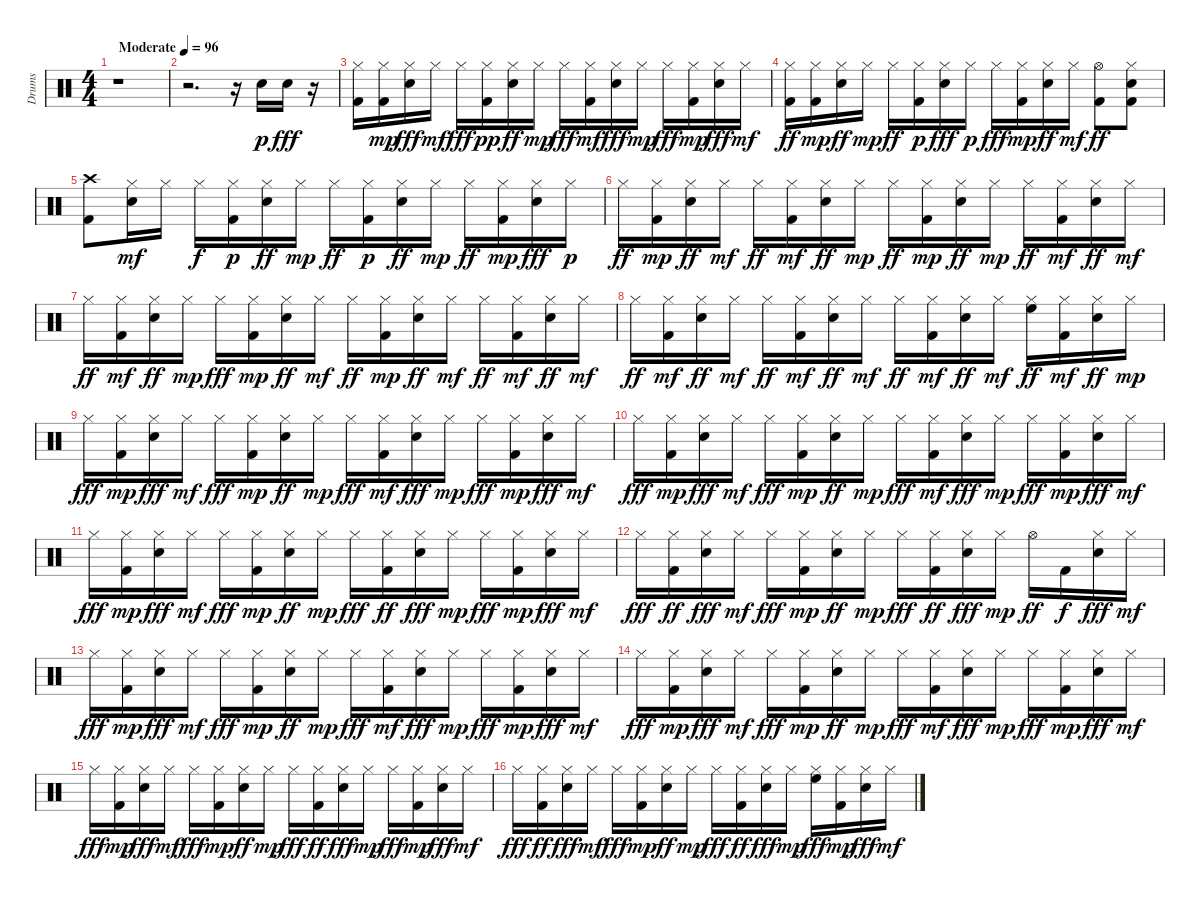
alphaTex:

\track ("Drums" "Drums") {instrument percussion}
\staff {score}
\articulation defaults
\ts (4 4)
\tempo (96 "Moderate")
\clef neutral
\ks c
r.1{dy p} |
r.2{d} r.16 "Electric Snare (hit)".16 "Electric Snare (hit)".16{dy fff} r.16 |
("Kick (hit) 2" "Hi-Hat (closed)").16 ("Kick (hit) 2" "Hi-Hat (closed)").16{dy mp} ("Electric Snare (hit)" "Hi-Hat (closed)").16{dy fff} "Hi-Hat (closed)".16{dy mf} "Hi-Hat (closed)".16{dy fff} ("Kick (hit) 2" "Hi-Hat (closed)").16{dy pp} ("Electric Snare (hit)" "Hi-Hat (closed)").16{dy ff} "Hi-Hat (closed)".16{dy mp} "Hi-Hat (closed)".16{dy fff} ("Kick (hit) 2" "Hi-Hat (closed)").16{dy mf} ("Electric Snare (hit)" "Hi-Hat (closed)").16{dy fff} "Hi-Hat (closed)".16{dy mp} "Hi-Hat (closed)".16{dy fff} ("Kick (hit) 2" "Hi-Hat (closed)").16{dy mp} ("Electric Snare (hit)" "Hi-Hat (closed)").16{dy fff} "Hi-Hat (closed)".16{dy mf} |
("Hi-Hat (closed)" "Kick (hit) 2").16{dy ff} ("Kick (hit) 2" "Hi-Hat (closed)").16{dy mp} ("Electric Snare (hit)" "Hi-Hat (closed)").16{dy ff} "Hi-Hat (closed)".16{dy mp} "Hi-Hat (closed)".16{dy ff} ("Kick (hit) 2" "Hi-Hat (closed)").16{dy p} ("Electric Snare (hit)" "Hi-Hat (closed)").16{dy fff} "Hi-Hat (closed)".16{dy p} "Hi-Hat (closed)".16{dy fff} ("Kick (hit) 2" "Hi-Hat (closed)").16{dy mp} ("Electric Snare (hit)" "Hi-Hat (closed)").16{dy ff} "Hi-Hat (closed)".16{dy mf} ("Hi-Hat (open)" "Kick (hit) 2").8{dy ff} ("Electric Snare (hit)" "Kick (hit) 2" "Hi-Hat (closed)").8 |
("Kick (hit) 2" "Crash high (hit)").8 ("Electric Snare (hit)" "Hi-Hat (closed)").16{dy mf} "Hi-Hat (closed)".16 "Hi-Hat (closed)".16{dy f} ("Kick (hit) 2" "Hi-Hat (closed)").16{dy p} ("Electric Snare (hit)" "Hi-Hat (closed)").16{dy ff} "Hi-Hat (closed)".16{dy mp} "Hi-Hat (closed)".16{dy ff} ("Kick (hit) 2" "Hi-Hat (closed)").16{dy p} ("Electric Snare (hit)" "Hi-Hat (closed)").16{dy ff} "Hi-Hat (closed)".16{dy mp} "Hi-Hat (closed)".16{dy ff} ("Kick (hit) 2" "Hi-Hat (closed)").16{dy mp} ("Electric Snare (hit)" "Hi-Hat (closed)").16{dy fff} "Hi-Hat (closed)".16{dy p} |
"Hi-Hat (closed)".16{dy ff} ("Kick (hit) 2" "Hi-Hat (closed)").16{dy mp} ("Electric Snare (hit)" "Hi-Hat (closed)").16{dy ff} "Hi-Hat (closed)".16{dy mf} "Hi-Hat (closed)".16{dy ff} ("Kick (hit) 2" "Hi-Hat (closed)").16{dy mf} ("Electric Snare (hit)" "Hi-Hat (closed)").16{dy ff} "Hi-Hat (closed)".16{dy mp} "Hi-Hat (closed)".16{dy ff} ("Kick (hit) 2" "Hi-Hat (closed)").16{dy mp} ("Electric Snare (hit)" "Hi-Hat (closed)").16{dy ff} "Hi-Hat (closed)".16{dy mp} "Hi-Hat (closed)".16{dy ff} ("Kick (hit) 2" "Hi-Hat (closed)").16{dy mf} ("Electric Snare (hit)" "Hi-Hat (closed)").16{dy ff} "Hi-Hat (closed)".16{dy mf} |
"Hi-Hat (closed)".16{dy ff} ("Kick (hit) 2" "Hi-Hat (closed)").16{dy mf} ("Electric Snare (hit)" "Hi-Hat (closed)").16{dy ff} "Hi-Hat (closed)".16{dy mp} "Hi-Hat (closed)".16{dy fff} ("Kick (hit) 2" "Hi-Hat (closed)").16{dy mp} ("Electric Snare (hit)" "Hi-Hat (closed)").16{dy ff} "Hi-Hat (closed)".16{dy mf} "Hi-Hat (closed)".16{dy ff} ("Kick (hit) 2" "Hi-Hat (closed)").16{dy mp} ("Electric Snare (hit)" "Hi-Hat (closed)").16{dy ff} "Hi-Hat (closed)".16{dy mf} "Hi-Hat (closed)".16{dy ff} ("Kick (hit) 2" "Hi-Hat (closed)").16{dy mf} ("Electric Snare (hit)" "Hi-Hat (closed)").16{dy ff} "Hi-Hat (closed)".16{dy mf} |
"Hi-Hat (closed)".16{dy ff} ("Kick (hit) 2" "Hi-Hat (closed)").16{dy mf} ("Electric Snare (hit)" "Hi-Hat (closed)").16{dy ff} "Hi-Hat (closed)".16{dy mf} "Hi-Hat (closed)".16{dy ff} ("Kick (hit) 2" "Hi-Hat (closed)").16{dy mf} ("Electric Snare (hit)" "Hi-Hat (closed)").16{dy ff} "Hi-Hat (closed)".16{dy mf} "Hi-Hat (closed)".16{dy ff} ("Kick (hit) 2" "Hi-Hat (closed)").16{dy mf} ("Electric Snare (hit)" "Hi-Hat (closed)").16{dy ff} "Hi-Hat (closed)".16{dy mf} ("Hi-Hat (closed)" "High Floor Tom (hit)").16{dy ff} ("Kick (hit) 2" "Hi-Hat (closed)").16{dy mf} ("Electric Snare (hit)" "Hi-Hat (closed)").16{dy ff} "Hi-Hat (closed)".16{dy mp} |
"Hi-Hat (closed)".16{dy fff} ("Kick (hit) 2" "Hi-Hat (closed)").16{dy mp} ("Electric Snare (hit)" "Hi-Hat (closed)").16{dy fff} "Hi-Hat (closed)".16{dy mf} "Hi-Hat (closed)".16{dy fff} ("Kick (hit) 2" "Hi-Hat (closed)").16{dy mp} ("Electric Snare (hit)" "Hi-Hat (closed)").16{dy ff} "Hi-Hat (closed)".16{dy mp} "Hi-Hat (closed)".16{dy fff} ("Hi-Hat (closed)" "Kick (hit) 2").16{dy mf} ("Electric Snare (hit)" "Hi-Hat (closed)").16{dy fff} "Hi-Hat (closed)".16{dy mp} "Hi-Hat (closed)".16{dy fff} ("Kick (hit) 2" "Hi-Hat (closed)").16{dy mp} ("Electric Snare (hit)" "Hi-Hat (closed)").16{dy fff} "Hi-Hat (closed)".16{dy mf} |
"Hi-Hat (closed)".16{dy fff} ("Kick (hit) 2" "Hi-Hat (closed)").16{dy mp} ("Electric Snare (hit)" "Hi-Hat (closed)").16{dy fff} "Hi-Hat (closed)".16{dy mf} "Hi-Hat (closed)".16{dy fff} ("Kick (hit) 2" "Hi-Hat (closed)").16{dy mp} ("Electric Snare (hit)" "Hi-Hat (closed)").16{dy ff} "Hi-Hat (closed)".16{dy mp} "Hi-Hat (closed)".16{dy fff} ("Kick (hit) 2" "Hi-Hat (closed)").16{dy mf} ("Electric Snare (hit)" "Hi-Hat (closed)").16{dy fff} "Hi-Hat (closed)".16{dy mp} "Hi-Hat (closed)".16{dy fff} ("Kick (hit) 2" "Hi-Hat (closed)").16{dy mp} ("Electric Snare (hit)" "Hi-Hat (closed)").16{dy fff} "Hi-Hat (closed)".16{dy mf} |
"Hi-Hat (closed)".16{dy fff} ("Hi-Hat (closed)" "Kick (hit) 2").16{dy mp} ("Electric Snare (hit)" "Hi-Hat (closed)").16{dy fff} "Hi-Hat (closed)".16{dy mf} "Hi-Hat (closed)".16{dy fff} ("Kick (hit) 2" "Hi-Hat (closed)").16{dy mp} ("Electric Snare (hit)" "Hi-Hat (closed)").16{dy ff} "Hi-Hat (closed)".16{dy mp} "Hi-Hat (closed)".16{dy fff} ("Hi-Hat (closed)" "Kick (hit) 2").16{dy ff} ("Electric Snare (hit)" "Hi-Hat (closed)").16{dy fff} "Hi-Hat (closed)".16{dy mp} "Hi-Hat (closed)".16{dy fff} ("Kick (hit) 2" "Hi-Hat (closed)").16{dy mp} ("Electric Snare (hit)" "Hi-Hat (closed)").16{dy fff} "Hi-Hat (closed)".16{dy mf} |
"Hi-Hat (closed)".16{dy fff} ("Hi-Hat (closed)" "Kick (hit) 2").16{dy ff} ("Electric Snare (hit)" "Hi-Hat (closed)").16{dy fff} "Hi-Hat (closed)".16{dy mf} "Hi-Hat (closed)".16{dy fff} ("Kick (hit) 2" "Hi-Hat (closed)").16{dy mp} ("Electric Snare (hit)" "Hi-Hat (closed)").16{dy ff} "Hi-Hat (closed)".16{dy mp} "Hi-Hat (closed)".16{dy fff} ("Hi-Hat (closed)" "Kick (hit) 2").16{dy ff} ("Electric Snare (hit)" "Hi-Hat (closed)").16{dy fff} "Hi-Hat (closed)".16{dy mp} "Hi-Hat (open)".16{dy ff} "Kick (hit) 2".16{dy f} ("Electric Snare (hit)" "Hi-Hat (closed)").16{dy fff} "Hi-Hat (closed)".16{dy mf} |
"Hi-Hat (closed)".16{dy fff} ("Kick (hit) 2" "Hi-Hat (closed)").16{dy mp} ("Electric Snare (hit)" "Hi-Hat (closed)").16{dy fff} "Hi-Hat (closed)".16{dy mf} "Hi-Hat (closed)".16{dy fff} ("Kick (hit) 2" "Hi-Hat (closed)").16{dy mp} ("Electric Snare (hit)" "Hi-Hat (closed)").16{dy ff} "Hi-Hat (closed)".16{dy mp} "Hi-Hat (closed)".16{dy fff} ("Hi-Hat (closed)" "Kick (hit) 2").16{dy mf} ("Electric Snare (hit)" "Hi-Hat (closed)").16{dy fff} "Hi-Hat (closed)".16{dy mp} "Hi-Hat (closed)".16{dy fff} ("Kick (hit) 2" "Hi-Hat (closed)").16{dy mp} ("Electric Snare (hit)" "Hi-Hat (closed)").16{dy fff} "Hi-Hat (closed)".16{dy mf} |
"Hi-Hat (closed)".16{dy fff} ("Kick (hit) 2" "Hi-Hat (closed)").16{dy mp} ("Electric Snare (hit)" "Hi-Hat (closed)").16{dy fff} "Hi-Hat (closed)".16{dy mf} "Hi-Hat (closed)".16{dy fff} ("Kick (hit) 2" "Hi-Hat (closed)").16{dy mp} ("Electric Snare (hit)" "Hi-Hat (closed)").16{dy ff} "Hi-Hat (closed)".16{dy mp} "Hi-Hat (closed)".16{dy fff} ("Kick (hit) 2" "Hi-Hat (closed)").16{dy mf} ("Electric Snare (hit)" "Hi-Hat (closed)").16{dy fff} "Hi-Hat (closed)".16{dy mp} "Hi-Hat (closed)".16{dy fff} ("Kick (hit) 2" "Hi-Hat (closed)").16{dy mp} ("Electric Snare (hit)" "Hi-Hat (closed)").16{dy fff} "Hi-Hat (closed)".16{dy mf} |
"Hi-Hat (closed)".16{dy fff} ("Hi-Hat (closed)" "Kick (hit) 2").16{dy mp} ("Electric Snare (hit)" "Hi-Hat (closed)").16{dy fff} "Hi-Hat (closed)".16{dy mf} "Hi-Hat (closed)".16{dy fff} ("Kick (hit) 2" "Hi-Hat (closed)").16{dy mp} ("Electric Snare (hit)" "Hi-Hat (closed)").16{dy ff} "Hi-Hat (closed)".16{dy mp} "Hi-Hat (closed)".16{dy fff} ("Hi-Hat (closed)" "Kick (hit) 2").16{dy ff} ("Electric Snare (hit)" "Hi-Hat (closed)").16{dy fff} "Hi-Hat (closed)".16{dy mp} "Hi-Hat (closed)".16{dy fff} ("Kick (hit) 2" "Hi-Hat (closed)").16{dy mp} ("Electric Snare (hit)" "Hi-Hat (closed)").16{dy fff} "Hi-Hat (closed)".16{dy mf} |
"Hi-Hat (closed)".16{dy fff} ("Hi-Hat (closed)" "Kick (hit) 2").16{dy ff} ("Electric Snare (hit)" "Hi-Hat (closed)").16{dy fff} "Hi-Hat (closed)".16{dy mf} "Hi-Hat (closed)".16{dy fff} ("Kick (hit) 2" "Hi-Hat (closed)").16{dy mp} ("Electric Snare (hit)" "Hi-Hat (closed)").16{dy ff} "Hi-Hat (closed)".16{dy mp} "Hi-Hat (closed)".16{dy fff} ("Hi-Hat (closed)" "Kick (hit) 2").16{dy ff} ("Electric Snare (hit)" "Hi-Hat (closed)").16{dy fff} "Hi-Hat (closed)".16{dy mp} ("High Floor Tom (hit)" "Hi-Hat (closed)").16{dy fff} ("Kick (hit) 2" "Hi-Hat (closed)").16{dy mp} ("Electric Snare (hit)" "Hi-Hat (closed)").16{dy fff} "Hi-Hat (closed)".16{dy mf}
